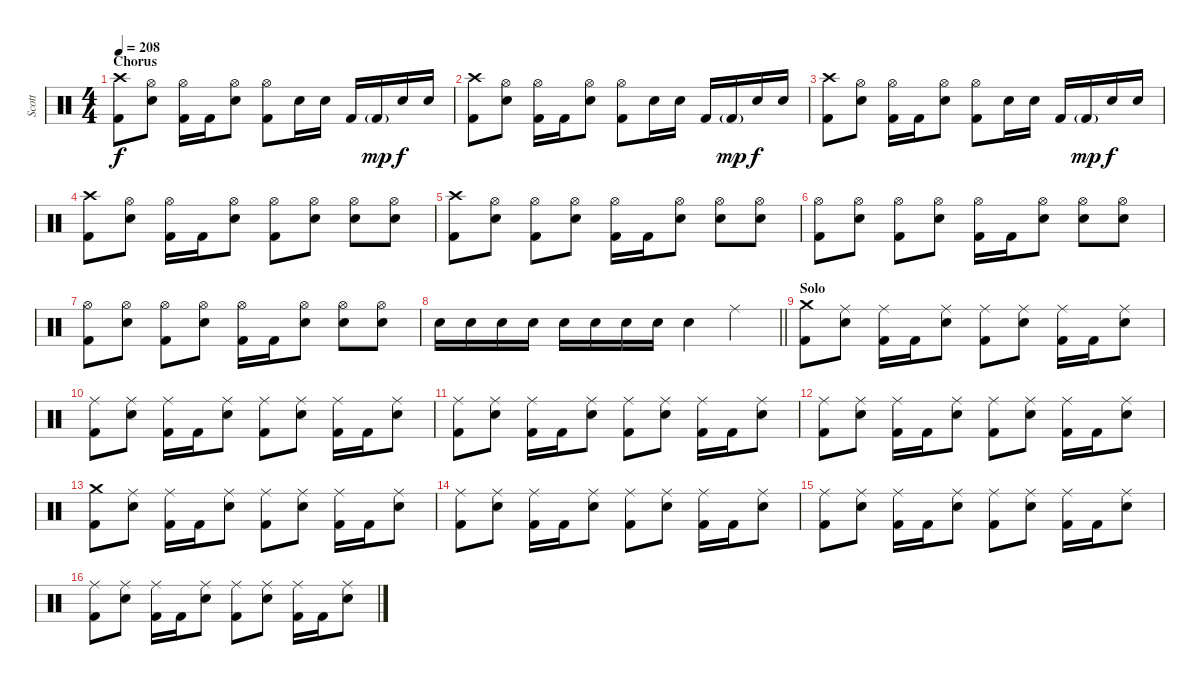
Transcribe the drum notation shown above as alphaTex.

\track ("Scott" "Scott") {instrument percussion}
\staff {score}
\articulation defaults
\ts (4 4)
\section ("" "Chorus")
\tempo 208
\clef neutral
\ks c
("Crash high (hit)" "Kick (hit) 2").8{dy f} ("Hi-Hat (open)" "Electric Snare (hit)").8 ("Hi-Hat (open)" "Kick (hit) 2").16 "Kick (hit) 2".16 ("Hi-Hat (open)" "Electric Snare (hit)").8 ("Hi-Hat (open)" "Kick (hit) 2").8 "Electric Snare (hit)".16 "Electric Snare (hit)".16 "Kick (hit) 2".16 "Kick (hit) 2"{g}.16{dy mp} "Electric Snare (hit)".16{dy f} "Electric Snare (hit)".16 |
("Crash high (hit)" "Kick (hit) 2").8 ("Hi-Hat (open)" "Electric Snare (hit)").8 ("Hi-Hat (open)" "Kick (hit) 2").16 "Kick (hit) 2".16 ("Hi-Hat (open)" "Electric Snare (hit)").8 ("Hi-Hat (open)" "Kick (hit) 2").8 "Electric Snare (hit)".16 "Electric Snare (hit)".16 "Kick (hit) 2".16 "Kick (hit) 2"{g}.16{dy mp} "Electric Snare (hit)".16{dy f} "Electric Snare (hit)".16 |
("Crash high (hit)" "Kick (hit) 2").8 ("Hi-Hat (open)" "Electric Snare (hit)").8 ("Hi-Hat (open)" "Kick (hit) 2").16 "Kick (hit) 2".16 ("Hi-Hat (open)" "Electric Snare (hit)").8 ("Hi-Hat (open)" "Kick (hit) 2").8 "Electric Snare (hit)".16 "Electric Snare (hit)".16 "Kick (hit) 2".16 "Kick (hit) 2"{g}.16{dy mp} "Electric Snare (hit)".16{dy f} "Electric Snare (hit)".16 |
("Crash high (hit)" "Kick (hit) 2").8 ("Hi-Hat (open)" "Electric Snare (hit)").8 ("Hi-Hat (open)" "Kick (hit) 2").16 "Kick (hit) 2".16 ("Hi-Hat (open)" "Electric Snare (hit)").8 ("Hi-Hat (open)" "Kick (hit) 2").8 ("Hi-Hat (open)" "Electric Snare (hit)").8 ("Hi-Hat (open)" "Electric Snare (hit)").8 ("Hi-Hat (open)" "Electric Snare (hit)").8 |
("Crash high (hit)" "Kick (hit) 2").8 ("Hi-Hat (open)" "Electric Snare (hit)").8 ("Hi-Hat (open)" "Kick (hit) 2").8 ("Hi-Hat (open)" "Electric Snare (hit)").8 ("Hi-Hat (open)" "Kick (hit) 2").16 "Kick (hit) 2".16 ("Hi-Hat (open)" "Electric Snare (hit)").8 ("Hi-Hat (open)" "Electric Snare (hit)").8 ("Hi-Hat (open)" "Electric Snare (hit)").8 |
("Hi-Hat (open)" "Kick (hit) 2").8 ("Hi-Hat (open)" "Electric Snare (hit)").8 ("Hi-Hat (open)" "Kick (hit) 2").8 ("Hi-Hat (open)" "Electric Snare (hit)").8 ("Hi-Hat (open)" "Kick (hit) 2").16 "Kick (hit) 2".16 ("Hi-Hat (open)" "Electric Snare (hit)").8 ("Hi-Hat (open)" "Electric Snare (hit)").8 ("Hi-Hat (open)" "Electric Snare (hit)").8 |
("Hi-Hat (open)" "Kick (hit) 2").8 ("Hi-Hat (open)" "Electric Snare (hit)").8 ("Hi-Hat (open)" "Kick (hit) 2").8 ("Hi-Hat (open)" "Electric Snare (hit)").8 ("Hi-Hat (open)" "Kick (hit) 2").16 "Kick (hit) 2".16 ("Hi-Hat (open)" "Electric Snare (hit)").8 ("Hi-Hat (open)" "Electric Snare (hit)").8 ("Hi-Hat (open)" "Electric Snare (hit)").8 |
\barLineRight lightlight "Electric Snare (hit)".16 "Electric Snare (hit)".16 "Electric Snare (hit)".16 "Electric Snare (hit)".16 "Electric Snare (hit)".16 "Electric Snare (hit)".16 "Electric Snare (hit)".16 "Electric Snare (hit)".16 "Electric Snare (hit)".4 "Ride (middle)".4
|
\section ("" "Solo")
("Crash medium (hit)" "Kick (hit) 2").8 ("Ride (middle)" "Electric Snare (hit)").8 ("Ride (middle)" "Kick (hit) 2").16 "Kick (hit) 2".16 ("Ride (middle)" "Electric Snare (hit)").8 ("Ride (middle)" "Kick (hit) 2").8 ("Ride (middle)" "Electric Snare (hit)").8 ("Ride (middle)" "Kick (hit) 2").16 "Kick (hit) 2".16 ("Ride (middle)" "Electric Snare (hit)").8 |
("Ride (middle)" "Kick (hit) 2").8 ("Ride (middle)" "Electric Snare (hit)").8 ("Ride (middle)" "Kick (hit) 2").16 "Kick (hit) 2".16 ("Ride (middle)" "Electric Snare (hit)").8 ("Ride (middle)" "Kick (hit) 2").8 ("Ride (middle)" "Electric Snare (hit)").8 ("Ride (middle)" "Kick (hit) 2").16 "Kick (hit) 2".16 ("Ride (middle)" "Electric Snare (hit)").8 |
("Ride (middle)" "Kick (hit) 2").8 ("Ride (middle)" "Electric Snare (hit)").8 ("Ride (middle)" "Kick (hit) 2").16 "Kick (hit) 2".16 ("Ride (middle)" "Electric Snare (hit)").8 ("Ride (middle)" "Kick (hit) 2").8 ("Ride (middle)" "Electric Snare (hit)").8 ("Ride (middle)" "Kick (hit) 2").16 "Kick (hit) 2".16 ("Ride (middle)" "Electric Snare (hit)").8 |
("Ride (middle)" "Kick (hit) 2").8 ("Ride (middle)" "Electric Snare (hit)").8 ("Ride (middle)" "Kick (hit) 2").16 "Kick (hit) 2".16 ("Ride (middle)" "Electric Snare (hit)").8 ("Ride (middle)" "Kick (hit) 2").8 ("Ride (middle)" "Electric Snare (hit)").8 ("Ride (middle)" "Kick (hit) 2").16 "Kick (hit) 2".16 ("Ride (middle)" "Electric Snare (hit)").8 |
("Crash medium (hit)" "Kick (hit) 2").8 ("Ride (middle)" "Electric Snare (hit)").8 ("Ride (middle)" "Kick (hit) 2").16 "Kick (hit) 2".16 ("Ride (middle)" "Electric Snare (hit)").8 ("Ride (middle)" "Kick (hit) 2").8 ("Ride (middle)" "Electric Snare (hit)").8 ("Ride (middle)" "Kick (hit) 2").16 "Kick (hit) 2".16 ("Ride (middle)" "Electric Snare (hit)").8 |
("Ride (middle)" "Kick (hit) 2").8 ("Ride (middle)" "Electric Snare (hit)").8 ("Ride (middle)" "Kick (hit) 2").16 "Kick (hit) 2".16 ("Ride (middle)" "Electric Snare (hit)").8 ("Ride (middle)" "Kick (hit) 2").8 ("Ride (middle)" "Electric Snare (hit)").8 ("Ride (middle)" "Kick (hit) 2").16 "Kick (hit) 2".16 ("Ride (middle)" "Electric Snare (hit)").8 |
("Ride (middle)" "Kick (hit) 2").8 ("Ride (middle)" "Electric Snare (hit)").8 ("Ride (middle)" "Kick (hit) 2").16 "Kick (hit) 2".16 ("Ride (middle)" "Electric Snare (hit)").8 ("Ride (middle)" "Kick (hit) 2").8 ("Ride (middle)" "Electric Snare (hit)").8 ("Ride (middle)" "Kick (hit) 2").16 "Kick (hit) 2".16 ("Ride (middle)" "Electric Snare (hit)").8 |
("Ride (middle)" "Kick (hit) 2").8 ("Ride (middle)" "Electric Snare (hit)").8 ("Ride (middle)" "Kick (hit) 2").16 "Kick (hit) 2".16 ("Ride (middle)" "Electric Snare (hit)").8 ("Ride (middle)" "Kick (hit) 2").8 ("Ride (middle)" "Electric Snare (hit)").8 ("Ride (middle)" "Kick (hit) 2").16 "Kick (hit) 2".16 ("Ride (middle)" "Electric Snare (hit)").8
